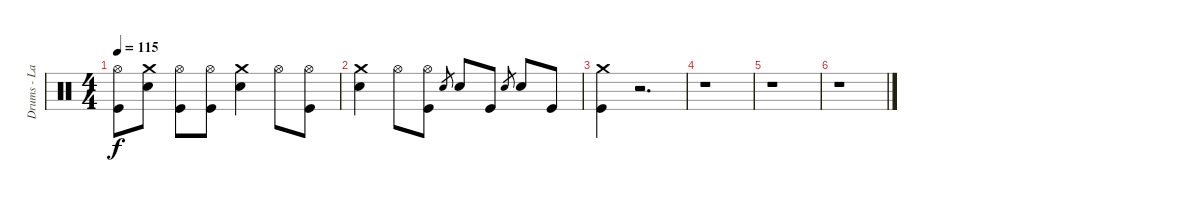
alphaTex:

\track ("Drums - Lars Ulrich" "Drums - La") {instrument percussion}
\staff {score}
\articulation defaults
\ts (4 4)
\tempo 115
\clef neutral
\ks c
("Kick (hit)" "Hi-Hat (open)").8{dy f} ("Electric Snare (hit)" "Crash medium (hit)").8 ("Kick (hit)" "Hi-Hat (open)").8 ("Kick (hit)" "Hi-Hat (open)").8 ("Electric Snare (hit)" "Crash medium (hit)").4 "Hi-Hat (open)".8 ("Kick (hit)" "Hi-Hat (open)").8 |
("Electric Snare (hit)" "Crash medium (hit)").4 "Hi-Hat (open)".8 ("Kick (hit)" "Hi-Hat (open)").8 "Electric Snare (hit)".8{gr} "Electric Snare (hit)".8 "Kick (hit)".8 "Electric Snare (hit)".8{gr} "Electric Snare (hit)".8 "Kick (hit)".8 |
("Kick (hit)" "Crash medium (hit)").4 r.2{d} |
r.1 |
r.1 |
r.1
